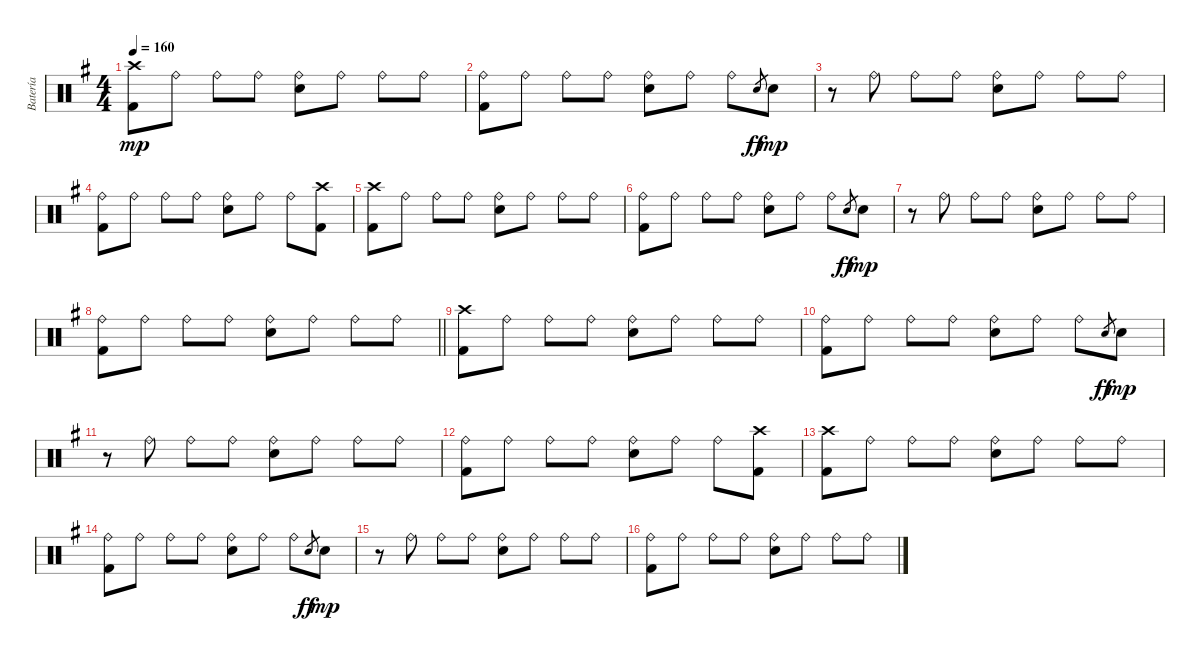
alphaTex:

\track ("Batería" "Batería") {instrument percussion}
\staff {score}
\articulation defaults
\ts (4 4)
\tempo 160
\clef neutral
\ks g
("Crash high (hit)" "Kick (hit) 2").8{dy mp} "Ride (bell)".8 "Ride (bell)".8 "Ride (bell)".8 ("Ride (bell)" "Snare (hit) 2").8 "Ride (bell)".8 "Ride (bell)".8 "Ride (bell)".8 |
("Ride (bell)" "Kick (hit) 2").8 "Ride (bell)".8 "Ride (bell)".8 "Ride (bell)".8 ("Ride (bell)" "Snare (hit) 2").8 "Ride (bell)".8 "Ride (bell)".8 "Snare (hit) 2".8{gr dy ff} "Snare (hit) 2".8{dy mp} |
r.8 "Ride (bell)".8 "Ride (bell)".8 "Ride (bell)".8 ("Ride (bell)" "Snare (hit) 2").8 "Ride (bell)".8 "Ride (bell)".8 "Ride (bell)".8 |
("Ride (bell)" "Kick (hit) 2").8 "Ride (bell)".8 "Ride (bell)".8 "Ride (bell)".8 ("Ride (bell)" "Snare (hit) 2").8 "Ride (bell)".8 "Ride (bell)".8 ("Crash high (hit)" "Kick (hit) 2").8 |
("Crash high (hit)" "Kick (hit) 2").8 "Ride (bell)".8 "Ride (bell)".8 "Ride (bell)".8 ("Ride (bell)" "Snare (hit) 2").8 "Ride (bell)".8 "Ride (bell)".8 "Ride (bell)".8 |
("Ride (bell)" "Kick (hit) 2").8 "Ride (bell)".8 "Ride (bell)".8 "Ride (bell)".8 ("Ride (bell)" "Snare (hit) 2").8 "Ride (bell)".8 "Ride (bell)".8 "Snare (hit) 2".8{gr dy ff} "Snare (hit) 2".8{dy mp} |
r.8 "Ride (bell)".8 "Ride (bell)".8 "Ride (bell)".8 ("Ride (bell)" "Snare (hit) 2").8 "Ride (bell)".8 "Ride (bell)".8 "Ride (bell)".8 |
\barLineRight lightlight
("Ride (bell)" "Kick (hit) 2").8 "Ride (bell)".8 "Ride (bell)".8 "Ride (bell)".8 ("Ride (bell)" "Snare (hit) 2").8 "Ride (bell)".8 "Ride (bell)".8 "Ride (bell)".8 |
\section ("" "")
("Crash high (hit)" "Kick (hit) 2").8 "Ride (bell)".8 "Ride (bell)".8 "Ride (bell)".8 ("Ride (bell)" "Snare (hit) 2").8 "Ride (bell)".8 "Ride (bell)".8 "Ride (bell)".8 |
("Ride (bell)" "Kick (hit) 2").8 "Ride (bell)".8 "Ride (bell)".8 "Ride (bell)".8 ("Ride (bell)" "Snare (hit) 2").8 "Ride (bell)".8 "Ride (bell)".8 "Snare (hit) 2".8{gr dy ff} "Snare (hit) 2".8{dy mp} |
r.8 "Ride (bell)".8 "Ride (bell)".8 "Ride (bell)".8 ("Ride (bell)" "Snare (hit) 2").8 "Ride (bell)".8 "Ride (bell)".8 "Ride (bell)".8 |
("Ride (bell)" "Kick (hit) 2").8 "Ride (bell)".8 "Ride (bell)".8 "Ride (bell)".8 ("Ride (bell)" "Snare (hit) 2").8 "Ride (bell)".8 "Ride (bell)".8 ("Crash high (hit)" "Kick (hit) 2").8 |
("Crash high (hit)" "Kick (hit) 2").8 "Ride (bell)".8 "Ride (bell)".8 "Ride (bell)".8 ("Ride (bell)" "Snare (hit) 2").8 "Ride (bell)".8 "Ride (bell)".8 "Ride (bell)".8 |
("Ride (bell)" "Kick (hit) 2").8 "Ride (bell)".8 "Ride (bell)".8 "Ride (bell)".8 ("Ride (bell)" "Snare (hit) 2").8 "Ride (bell)".8 "Ride (bell)".8 "Snare (hit) 2".8{gr dy ff} "Snare (hit) 2".8{dy mp} |
r.8 "Ride (bell)".8 "Ride (bell)".8 "Ride (bell)".8 ("Ride (bell)" "Snare (hit) 2").8 "Ride (bell)".8 "Ride (bell)".8 "Ride (bell)".8 |
("Ride (bell)" "Kick (hit) 2").8 "Ride (bell)".8 "Ride (bell)".8 "Ride (bell)".8 ("Ride (bell)" "Snare (hit) 2").8 "Ride (bell)".8 "Ride (bell)".8 "Ride (bell)".8
